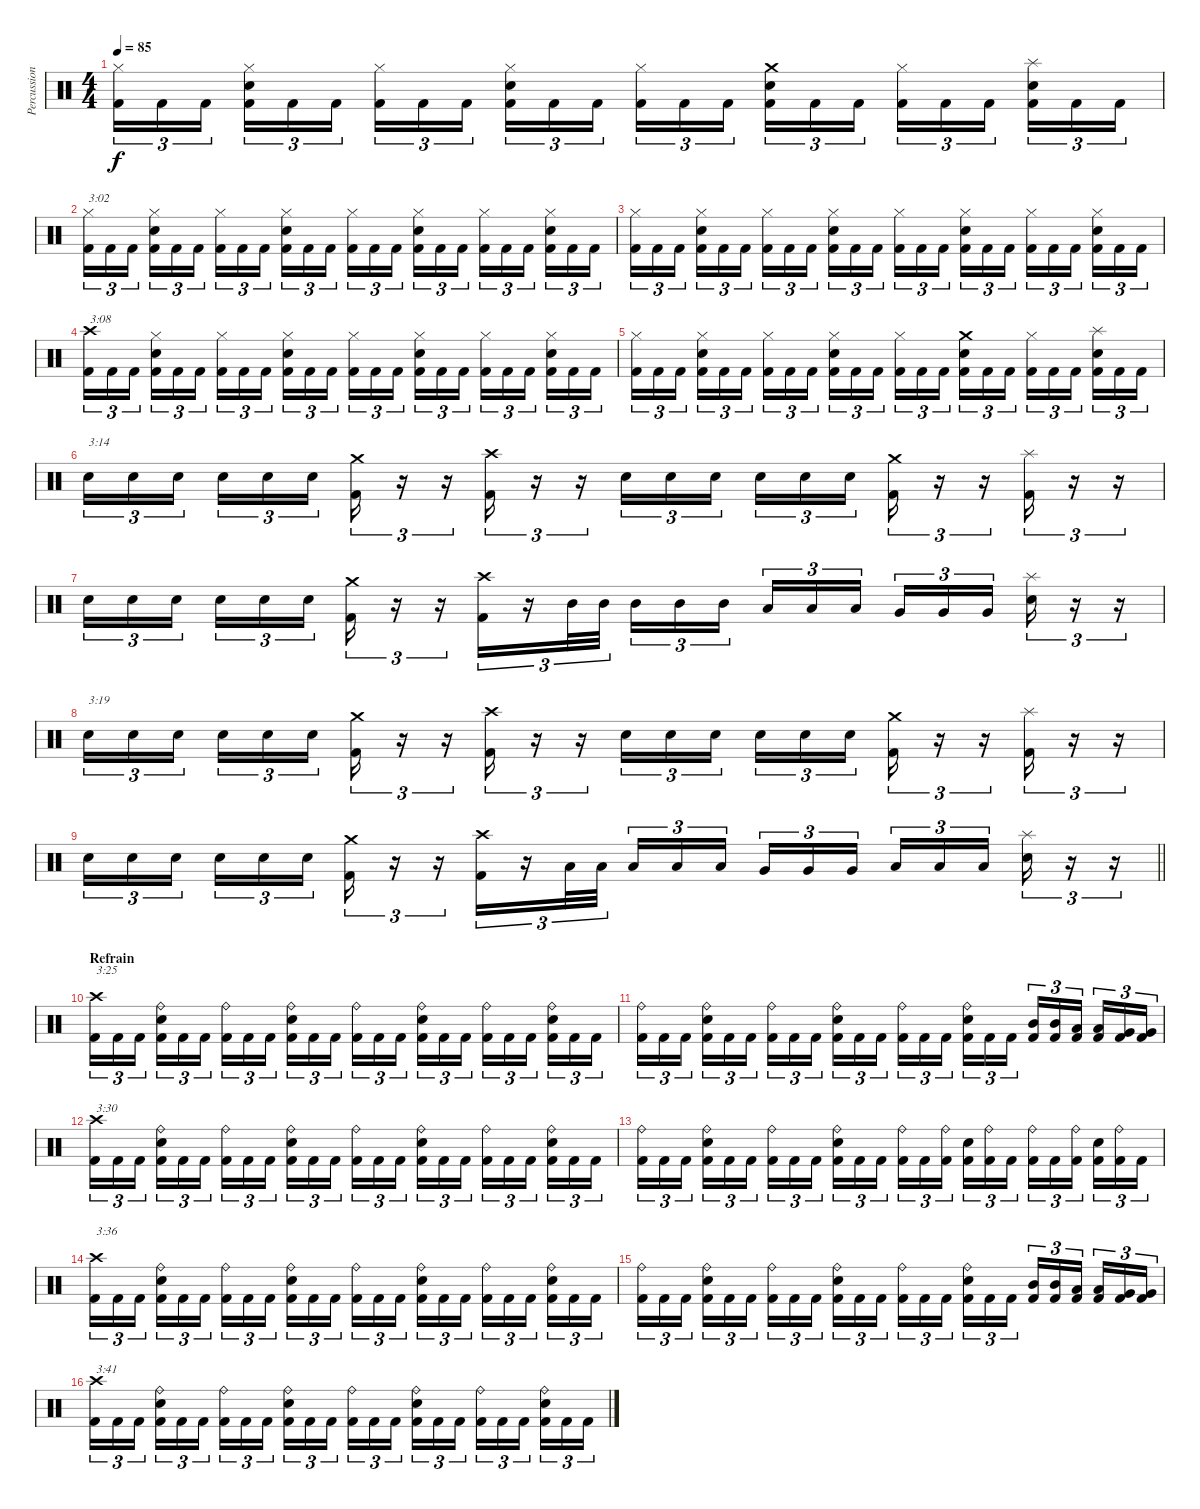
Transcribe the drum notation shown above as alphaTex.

\track ("Percussion" "Percussion") {instrument percussion}
\staff {score}
\articulation defaults
\ts (4 4)
\tempo 85
\clef neutral
\ks c
("Hi-Hat (closed)" "Kick (hit) 2").16{tu (3 2) dy f} "Kick (hit) 2".16{tu (3 2)} "Kick (hit) 2".16{tu (3 2)} ("Hi-Hat (closed)" "Electric Snare (hit)" "Kick (hit) 2").16{tu (3 2)} "Kick (hit) 2".16{tu (3 2)} "Kick (hit) 2".16{tu (3 2)} ("Hi-Hat (closed)" "Kick (hit) 2").16{tu (3 2)} "Kick (hit) 2".16{tu (3 2)} "Kick (hit) 2".16{tu (3 2)} ("Hi-Hat (closed)" "Electric Snare (hit)" "Kick (hit) 2").16{tu (3 2)} "Kick (hit) 2".16{tu (3 2)} "Kick (hit) 2".16{tu (3 2)} ("Hi-Hat (closed)" "Kick (hit) 2").16{tu (3 2)} "Kick (hit) 2".16{tu (3 2)} "Kick (hit) 2".16{tu (3 2)} ("Crash medium (hit)" "Electric Snare (hit)" "Kick (hit) 2").16{tu (3 2)} "Kick (hit) 2".16{tu (3 2)} "Kick (hit) 2".16{tu (3 2)} ("Hi-Hat (closed)" "Kick (hit) 2").16{tu (3 2)} "Kick (hit) 2".16{tu (3 2)} "Kick (hit) 2".16{tu (3 2)} ("Splash (hit)" "Electric Snare (hit)" "Kick (hit) 2").16{tu (3 2)} "Kick (hit) 2".16{tu (3 2)} "Kick (hit) 2".16{tu (3 2)} |
("Hi-Hat (closed)" "Kick (hit) 2").16{tu (3 2) txt "3:02"} "Kick (hit) 2".16{tu (3 2)} "Kick (hit) 2".16{tu (3 2)} ("Hi-Hat (closed)" "Electric Snare (hit)" "Kick (hit) 2").16{tu (3 2)} "Kick (hit) 2".16{tu (3 2)} "Kick (hit) 2".16{tu (3 2)} ("Hi-Hat (closed)" "Kick (hit) 2").16{tu (3 2)} "Kick (hit) 2".16{tu (3 2)} "Kick (hit) 2".16{tu (3 2)} ("Hi-Hat (closed)" "Electric Snare (hit)" "Kick (hit) 2").16{tu (3 2)} "Kick (hit) 2".16{tu (3 2)} "Kick (hit) 2".16{tu (3 2)} ("Hi-Hat (closed)" "Kick (hit) 2").16{tu (3 2)} "Kick (hit) 2".16{tu (3 2)} "Kick (hit) 2".16{tu (3 2)} ("Hi-Hat (closed)" "Electric Snare (hit)" "Kick (hit) 2").16{tu (3 2)} "Kick (hit) 2".16{tu (3 2)} "Kick (hit) 2".16{tu (3 2)} ("Hi-Hat (closed)" "Kick (hit) 2").16{tu (3 2)} "Kick (hit) 2".16{tu (3 2)} "Kick (hit) 2".16{tu (3 2)} ("Hi-Hat (closed)" "Electric Snare (hit)" "Kick (hit) 2").16{tu (3 2)} "Kick (hit) 2".16{tu (3 2)} "Kick (hit) 2".16{tu (3 2)} |
("Hi-Hat (closed)" "Kick (hit) 2").16{tu (3 2)} "Kick (hit) 2".16{tu (3 2)} "Kick (hit) 2".16{tu (3 2)} ("Hi-Hat (closed)" "Electric Snare (hit)" "Kick (hit) 2").16{tu (3 2)} "Kick (hit) 2".16{tu (3 2)} "Kick (hit) 2".16{tu (3 2)} ("Hi-Hat (closed)" "Kick (hit) 2").16{tu (3 2)} "Kick (hit) 2".16{tu (3 2)} "Kick (hit) 2".16{tu (3 2)} ("Hi-Hat (closed)" "Electric Snare (hit)" "Kick (hit) 2").16{tu (3 2)} "Kick (hit) 2".16{tu (3 2)} "Kick (hit) 2".16{tu (3 2)} ("Hi-Hat (closed)" "Kick (hit) 2").16{tu (3 2)} "Kick (hit) 2".16{tu (3 2)} "Kick (hit) 2".16{tu (3 2)} ("Hi-Hat (closed)" "Electric Snare (hit)" "Kick (hit) 2").16{tu (3 2)} "Kick (hit) 2".16{tu (3 2)} "Kick (hit) 2".16{tu (3 2)} ("Hi-Hat (closed)" "Kick (hit) 2").16{tu (3 2)} "Kick (hit) 2".16{tu (3 2)} "Kick (hit) 2".16{tu (3 2)} ("Hi-Hat (closed)" "Electric Snare (hit)" "Kick (hit) 2").16{tu (3 2)} "Kick (hit) 2".16{tu (3 2)} "Kick (hit) 2".16{tu (3 2)} |
("Crash high (hit)" "Kick (hit) 2").16{tu (3 2) txt "3:08"} "Kick (hit) 2".16{tu (3 2)} "Kick (hit) 2".16{tu (3 2)} ("Hi-Hat (closed)" "Electric Snare (hit)" "Kick (hit) 2").16{tu (3 2)} "Kick (hit) 2".16{tu (3 2)} "Kick (hit) 2".16{tu (3 2)} ("Hi-Hat (closed)" "Kick (hit) 2").16{tu (3 2)} "Kick (hit) 2".16{tu (3 2)} "Kick (hit) 2".16{tu (3 2)} ("Hi-Hat (closed)" "Electric Snare (hit)" "Kick (hit) 2").16{tu (3 2)} "Kick (hit) 2".16{tu (3 2)} "Kick (hit) 2".16{tu (3 2)} ("Hi-Hat (closed)" "Kick (hit) 2").16{tu (3 2)} "Kick (hit) 2".16{tu (3 2)} "Kick (hit) 2".16{tu (3 2)} ("Hi-Hat (closed)" "Electric Snare (hit)" "Kick (hit) 2").16{tu (3 2)} "Kick (hit) 2".16{tu (3 2)} "Kick (hit) 2".16{tu (3 2)} ("Hi-Hat (closed)" "Kick (hit) 2").16{tu (3 2)} "Kick (hit) 2".16{tu (3 2)} "Kick (hit) 2".16{tu (3 2)} ("Hi-Hat (closed)" "Electric Snare (hit)" "Kick (hit) 2").16{tu (3 2)} "Kick (hit) 2".16{tu (3 2)} "Kick (hit) 2".16{tu (3 2)} |
("Hi-Hat (closed)" "Kick (hit) 2").16{tu (3 2)} "Kick (hit) 2".16{tu (3 2)} "Kick (hit) 2".16{tu (3 2)} ("Hi-Hat (closed)" "Electric Snare (hit)" "Kick (hit) 2").16{tu (3 2)} "Kick (hit) 2".16{tu (3 2)} "Kick (hit) 2".16{tu (3 2)} ("Hi-Hat (closed)" "Kick (hit) 2").16{tu (3 2)} "Kick (hit) 2".16{tu (3 2)} "Kick (hit) 2".16{tu (3 2)} ("Hi-Hat (closed)" "Electric Snare (hit)" "Kick (hit) 2").16{tu (3 2)} "Kick (hit) 2".16{tu (3 2)} "Kick (hit) 2".16{tu (3 2)} ("Hi-Hat (closed)" "Kick (hit) 2").16{tu (3 2)} "Kick (hit) 2".16{tu (3 2)} "Kick (hit) 2".16{tu (3 2)} ("Crash medium (hit)" "Electric Snare (hit)" "Kick (hit) 2").16{tu (3 2)} "Kick (hit) 2".16{tu (3 2)} "Kick (hit) 2".16{tu (3 2)} ("Hi-Hat (closed)" "Kick (hit) 2").16{tu (3 2)} "Kick (hit) 2".16{tu (3 2)} "Kick (hit) 2".16{tu (3 2)} ("Splash (hit)" "Electric Snare (hit)" "Kick (hit) 2").16{tu (3 2)} "Kick (hit) 2".16{tu (3 2)} "Kick (hit) 2".16{tu (3 2)} |
"Electric Snare (hit)".16{tu (3 2) txt "3:14"} "Electric Snare (hit)".16{tu (3 2)} "Electric Snare (hit)".16{tu (3 2)} "Electric Snare (hit)".16{tu (3 2)} "Electric Snare (hit)".16{tu (3 2)} "Electric Snare (hit)".16{tu (3 2)} ("Crash medium (hit)" "Kick (hit) 2").16{tu (3 2)} r.16{tu (3 2)} r.16{tu (3 2)} ("Crash high (hit)" "Kick (hit) 2").16{tu (3 2)} r.16{tu (3 2)} r.16{tu (3 2)} "Electric Snare (hit)".16{tu (3 2)} "Electric Snare (hit)".16{tu (3 2)} "Electric Snare (hit)".16{tu (3 2)} "Electric Snare (hit)".16{tu (3 2)} "Electric Snare (hit)".16{tu (3 2)} "Electric Snare (hit)".16{tu (3 2)} ("Crash medium (hit)" "Kick (hit) 2").16{tu (3 2)} r.16{tu (3 2)} r.16{tu (3 2)} ("Splash (hit)" "Kick (hit) 2").16{tu (3 2)} r.16{tu (3 2)} r.16{tu (3 2)} |
"Electric Snare (hit)".16{tu (3 2)} "Electric Snare (hit)".16{tu (3 2)} "Electric Snare (hit)".16{tu (3 2)} "Electric Snare (hit)".16{tu (3 2)} "Electric Snare (hit)".16{tu (3 2)} "Electric Snare (hit)".16{tu (3 2)} ("Crash medium (hit)" "Kick (hit) 2").16{tu (3 2)} r.16{tu (3 2)} r.16{tu (3 2)} ("Crash high (hit)" "Kick (hit) 2").16{tu (3 2)} r.16{tu (3 2)} "Mid Tom (hit)".32{tu (3 2)} "Mid Tom (hit)".32{tu (3 2)} "Mid Tom (hit)".16{tu (3 2)} "Mid Tom (hit)".16{tu (3 2)} "Mid Tom (hit)".16{tu (3 2)} "Low Tom (hit)".16{tu (3 2)} "Low Tom (hit)".16{tu (3 2)} "Low Tom (hit)".16{tu (3 2)} "Very Low Tom (hit)".16{tu (3 2)} "Very Low Tom (hit)".16{tu (3 2)} "Very Low Tom (hit)".16{tu (3 2)} ("Splash (hit)" "Electric Snare (hit)").16{tu (3 2)} r.16{tu (3 2)} r.16{tu (3 2)} |
"Electric Snare (hit)".16{tu (3 2) txt "3:19"} "Electric Snare (hit)".16{tu (3 2)} "Electric Snare (hit)".16{tu (3 2)} "Electric Snare (hit)".16{tu (3 2)} "Electric Snare (hit)".16{tu (3 2)} "Electric Snare (hit)".16{tu (3 2)} ("Crash medium (hit)" "Kick (hit) 2").16{tu (3 2)} r.16{tu (3 2)} r.16{tu (3 2)} ("Crash high (hit)" "Kick (hit) 2").16{tu (3 2)} r.16{tu (3 2)} r.16{tu (3 2)} "Electric Snare (hit)".16{tu (3 2)} "Electric Snare (hit)".16{tu (3 2)} "Electric Snare (hit)".16{tu (3 2)} "Electric Snare (hit)".16{tu (3 2)} "Electric Snare (hit)".16{tu (3 2)} "Electric Snare (hit)".16{tu (3 2)} ("Crash medium (hit)" "Kick (hit) 2").16{tu (3 2)} r.16{tu (3 2)} r.16{tu (3 2)} ("Splash (hit)" "Kick (hit) 2").16{tu (3 2)} r.16{tu (3 2)} r.16{tu (3 2)} |
\barLineRight lightlight "Electric Snare (hit)".16{tu (3 2)} "Electric Snare (hit)".16{tu (3 2)} "Electric Snare (hit)".16{tu (3 2)} "Electric Snare (hit)".16{tu (3 2)} "Electric Snare (hit)".16{tu (3 2)} "Electric Snare (hit)".16{tu (3 2)}
("Crash medium (hit)" "Kick (hit) 2").16{tu (3 2)} r.16{tu (3 2)} r.16{tu (3 2)} ("Crash high (hit)" "Kick (hit) 2").16{tu (3 2)} r.16{tu (3 2)} "Low Tom (hit)".32{tu (3 2)} "Low Tom (hit)".32{tu (3 2)} "Low Tom (hit)".16{tu (3 2)} "Low Tom (hit)".16{tu (3 2)} "Low Tom (hit)".16{tu (3 2)} "Very Low Tom (hit)".16{tu (3 2)} "Very Low Tom (hit)".16{tu (3 2)} "Very Low Tom (hit)".16{tu (3 2)} "Low Floor Tom (hit)".16{tu (3 2)} "Low Floor Tom (hit)".16{tu (3 2)} "Low Floor Tom (hit)".16{tu (3 2)} ("Splash (hit)" "Electric Snare (hit)").16{tu (3 2)} r.16{tu (3 2)} r.16{tu (3 2)} |
\section ("" "Refrain")
("Crash high (hit)" "Kick (hit) 2").16{tu (3 2) txt "3:25"} "Kick (hit) 2".16{tu (3 2)} "Kick (hit) 2".16{tu (3 2)} ("Ride (bell)" "Electric Snare (hit)" "Kick (hit) 2").16{tu (3 2)} "Kick (hit) 2".16{tu (3 2)} "Kick (hit) 2".16{tu (3 2)} ("Ride (bell)" "Kick (hit) 2").16{tu (3 2)} "Kick (hit) 2".16{tu (3 2)} "Kick (hit) 2".16{tu (3 2)} ("Ride (bell)" "Electric Snare (hit)" "Kick (hit) 2").16{tu (3 2)} "Kick (hit) 2".16{tu (3 2)} "Kick (hit) 2".16{tu (3 2)} ("Ride (bell)" "Kick (hit) 2").16{tu (3 2)} "Kick (hit) 2".16{tu (3 2)} "Kick (hit) 2".16{tu (3 2)} ("Ride (bell)" "Electric Snare (hit)" "Kick (hit) 2").16{tu (3 2)} "Kick (hit) 2".16{tu (3 2)} "Kick (hit) 2".16{tu (3 2)} ("Ride (bell)" "Kick (hit) 2").16{tu (3 2)} "Kick (hit) 2".16{tu (3 2)} "Kick (hit) 2".16{tu (3 2)} ("Ride (bell)" "Electric Snare (hit)" "Kick (hit) 2").16{tu (3 2)} "Kick (hit) 2".16{tu (3 2)} "Kick (hit) 2".16{tu (3 2)} |
("Ride (bell)" "Kick (hit) 2").16{tu (3 2)} "Kick (hit) 2".16{tu (3 2)} "Kick (hit) 2".16{tu (3 2)} ("Ride (bell)" "Electric Snare (hit)" "Kick (hit) 2").16{tu (3 2)} "Kick (hit) 2".16{tu (3 2)} "Kick (hit) 2".16{tu (3 2)} ("Ride (bell)" "Kick (hit) 2").16{tu (3 2)} "Kick (hit) 2".16{tu (3 2)} "Kick (hit) 2".16{tu (3 2)} ("Ride (bell)" "Electric Snare (hit)" "Kick (hit) 2").16{tu (3 2)} "Kick (hit) 2".16{tu (3 2)} "Kick (hit) 2".16{tu (3 2)} ("Ride (bell)" "Kick (hit) 2").16{tu (3 2)} "Kick (hit) 2".16{tu (3 2)} "Kick (hit) 2".16{tu (3 2)} ("Ride (bell)" "Electric Snare (hit)" "Kick (hit) 2").16{tu (3 2)} "Kick (hit) 2".16{tu (3 2)} "Kick (hit) 2".16{tu (3 2)} ("Mid Tom (hit)" "Kick (hit) 2").16{tu (3 2)} ("Mid Tom (hit)" "Kick (hit) 2").16{tu (3 2)} ("Low Tom (hit)" "Kick (hit) 2").16{tu (3 2)} ("Low Tom (hit)" "Kick (hit) 2").16{tu (3 2)} ("Very Low Tom (hit)" "Kick (hit) 2").16{tu (3 2)} ("Very Low Tom (hit)" "Kick (hit) 2").16{tu (3 2)} |
("Crash high (hit)" "Kick (hit) 2").16{tu (3 2) txt "3:30"} "Kick (hit) 2".16{tu (3 2)} "Kick (hit) 2".16{tu (3 2)} ("Ride (bell)" "Electric Snare (hit)" "Kick (hit) 2").16{tu (3 2)} "Kick (hit) 2".16{tu (3 2)} "Kick (hit) 2".16{tu (3 2)} ("Ride (bell)" "Kick (hit) 2").16{tu (3 2)} "Kick (hit) 2".16{tu (3 2)} "Kick (hit) 2".16{tu (3 2)} ("Ride (bell)" "Electric Snare (hit)" "Kick (hit) 2").16{tu (3 2)} "Kick (hit) 2".16{tu (3 2)} "Kick (hit) 2".16{tu (3 2)} ("Ride (bell)" "Kick (hit) 2").16{tu (3 2)} "Kick (hit) 2".16{tu (3 2)} "Kick (hit) 2".16{tu (3 2)} ("Ride (bell)" "Electric Snare (hit)" "Kick (hit) 2").16{tu (3 2)} "Kick (hit) 2".16{tu (3 2)} "Kick (hit) 2".16{tu (3 2)} ("Ride (bell)" "Kick (hit) 2").16{tu (3 2)} "Kick (hit) 2".16{tu (3 2)} "Kick (hit) 2".16{tu (3 2)} ("Ride (bell)" "Electric Snare (hit)" "Kick (hit) 2").16{tu (3 2)} "Kick (hit) 2".16{tu (3 2)} "Kick (hit) 2".16{tu (3 2)} |
("Ride (bell)" "Kick (hit) 2").16{tu (3 2)} "Kick (hit) 2".16{tu (3 2)} "Kick (hit) 2".16{tu (3 2)} ("Ride (bell)" "Electric Snare (hit)" "Kick (hit) 2").16{tu (3 2)} "Kick (hit) 2".16{tu (3 2)} "Kick (hit) 2".16{tu (3 2)} ("Ride (bell)" "Kick (hit) 2").16{tu (3 2)} "Kick (hit) 2".16{tu (3 2)} "Kick (hit) 2".16{tu (3 2)} ("Ride (bell)" "Electric Snare (hit)" "Kick (hit) 2").16{tu (3 2)} "Kick (hit) 2".16{tu (3 2)} "Kick (hit) 2".16{tu (3 2)} ("Ride (bell)" "Kick (hit) 2").16{tu (3 2)} "Kick (hit) 2".16{tu (3 2)} ("Ride (bell)" "Kick (hit) 2").16{tu (3 2)} ("Electric Snare (hit)" "Kick (hit) 2").16{tu (3 2)} ("Ride (bell)" "Kick (hit) 2").16{tu (3 2)} "Kick (hit) 2".16{tu (3 2)} ("Ride (bell)" "Kick (hit) 2").16{tu (3 2)} "Kick (hit) 2".16{tu (3 2)} ("Ride (bell)" "Kick (hit) 2").16{tu (3 2)} ("Electric Snare (hit)" "Kick (hit) 2").16{tu (3 2)} ("Ride (bell)" "Kick (hit) 2").16{tu (3 2)} "Kick (hit) 2".16{tu (3 2)} |
("Crash high (hit)" "Kick (hit) 2").16{tu (3 2) txt "3:36"} "Kick (hit) 2".16{tu (3 2)} "Kick (hit) 2".16{tu (3 2)} ("Ride (bell)" "Electric Snare (hit)" "Kick (hit) 2").16{tu (3 2)} "Kick (hit) 2".16{tu (3 2)} "Kick (hit) 2".16{tu (3 2)} ("Ride (bell)" "Kick (hit) 2").16{tu (3 2)} "Kick (hit) 2".16{tu (3 2)} "Kick (hit) 2".16{tu (3 2)} ("Ride (bell)" "Electric Snare (hit)" "Kick (hit) 2").16{tu (3 2)} "Kick (hit) 2".16{tu (3 2)} "Kick (hit) 2".16{tu (3 2)} ("Ride (bell)" "Kick (hit) 2").16{tu (3 2)} "Kick (hit) 2".16{tu (3 2)} "Kick (hit) 2".16{tu (3 2)} ("Ride (bell)" "Electric Snare (hit)" "Kick (hit) 2").16{tu (3 2)} "Kick (hit) 2".16{tu (3 2)} "Kick (hit) 2".16{tu (3 2)} ("Ride (bell)" "Kick (hit) 2").16{tu (3 2)} "Kick (hit) 2".16{tu (3 2)} "Kick (hit) 2".16{tu (3 2)} ("Ride (bell)" "Electric Snare (hit)" "Kick (hit) 2").16{tu (3 2)} "Kick (hit) 2".16{tu (3 2)} "Kick (hit) 2".16{tu (3 2)} |
("Ride (bell)" "Kick (hit) 2").16{tu (3 2)} "Kick (hit) 2".16{tu (3 2)} "Kick (hit) 2".16{tu (3 2)} ("Ride (bell)" "Electric Snare (hit)" "Kick (hit) 2").16{tu (3 2)} "Kick (hit) 2".16{tu (3 2)} "Kick (hit) 2".16{tu (3 2)} ("Ride (bell)" "Kick (hit) 2").16{tu (3 2)} "Kick (hit) 2".16{tu (3 2)} "Kick (hit) 2".16{tu (3 2)} ("Ride (bell)" "Electric Snare (hit)" "Kick (hit) 2").16{tu (3 2)} "Kick (hit) 2".16{tu (3 2)} "Kick (hit) 2".16{tu (3 2)} ("Ride (bell)" "Kick (hit) 2").16{tu (3 2)} "Kick (hit) 2".16{tu (3 2)} "Kick (hit) 2".16{tu (3 2)} ("Ride (bell)" "Electric Snare (hit)" "Kick (hit) 2").16{tu (3 2)} "Kick (hit) 2".16{tu (3 2)} "Kick (hit) 2".16{tu (3 2)} ("Mid Tom (hit)" "Kick (hit) 2").16{tu (3 2)} ("Mid Tom (hit)" "Kick (hit) 2").16{tu (3 2)} ("Low Tom (hit)" "Kick (hit) 2").16{tu (3 2)} ("Low Tom (hit)" "Kick (hit) 2").16{tu (3 2)} ("Very Low Tom (hit)" "Kick (hit) 2").16{tu (3 2)} ("Very Low Tom (hit)" "Kick (hit) 2").16{tu (3 2)} |
("Crash high (hit)" "Kick (hit) 2").16{tu (3 2) txt "3:41"} "Kick (hit) 2".16{tu (3 2)} "Kick (hit) 2".16{tu (3 2)} ("Ride (bell)" "Electric Snare (hit)" "Kick (hit) 2").16{tu (3 2)} "Kick (hit) 2".16{tu (3 2)} "Kick (hit) 2".16{tu (3 2)} ("Ride (bell)" "Kick (hit) 2").16{tu (3 2)} "Kick (hit) 2".16{tu (3 2)} "Kick (hit) 2".16{tu (3 2)} ("Ride (bell)" "Electric Snare (hit)" "Kick (hit) 2").16{tu (3 2)} "Kick (hit) 2".16{tu (3 2)} "Kick (hit) 2".16{tu (3 2)} ("Ride (bell)" "Kick (hit) 2").16{tu (3 2)} "Kick (hit) 2".16{tu (3 2)} "Kick (hit) 2".16{tu (3 2)} ("Ride (bell)" "Electric Snare (hit)" "Kick (hit) 2").16{tu (3 2)} "Kick (hit) 2".16{tu (3 2)} "Kick (hit) 2".16{tu (3 2)} ("Ride (bell)" "Kick (hit) 2").16{tu (3 2)} "Kick (hit) 2".16{tu (3 2)} "Kick (hit) 2".16{tu (3 2)} ("Ride (bell)" "Electric Snare (hit)" "Kick (hit) 2").16{tu (3 2)} "Kick (hit) 2".16{tu (3 2)} "Kick (hit) 2".16{tu (3 2)}
